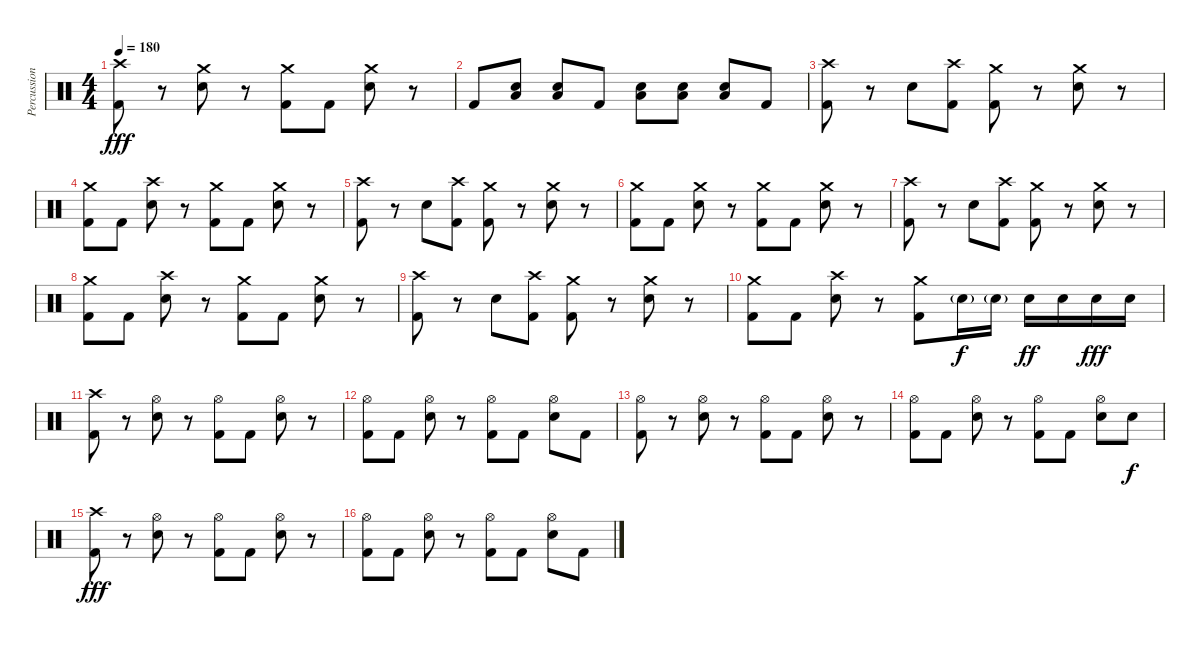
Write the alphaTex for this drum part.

\track ("Percussions" "Percussion") {mute instrument percussion}
\staff {score}
\articulation defaults
\ts (4 4)
\tempo 180
\clef neutral
\ks c
("Crash high (hit)" "Kick (hit) 2").8{dy fff} r.8 ("Crash medium (hit)" "Electric Snare (hit)").8 r.8 ("Crash medium (hit)" "Kick (hit) 2").8 "Kick (hit) 2".8 ("Crash medium (hit)" "Electric Snare (hit)").8 r.8 |
"Kick (hit) 2".8 ("Electric Snare (hit)" "Low Floor Tom (hit)").8 ("Electric Snare (hit)" "Low Floor Tom (hit)").8 "Kick (hit) 2".8 ("Electric Snare (hit)" "Low Floor Tom (hit)").8 ("Electric Snare (hit)" "Low Floor Tom (hit)").8 ("Electric Snare (hit)" "Low Floor Tom (hit)").8 "Kick (hit) 2".8 |
("Crash high (hit)" "Kick (hit) 2").8 r.8 "Electric Snare (hit)".8 ("Crash high (hit)" "Kick (hit) 2").8 ("Crash medium (hit)" "Kick (hit) 2").8 r.8 ("Crash medium (hit)" "Electric Snare (hit)").8 r.8 |
("Crash medium (hit)" "Kick (hit) 2").8 "Kick (hit) 2".8 ("Crash high (hit)" "Electric Snare (hit)").8 r.8 ("Crash medium (hit)" "Kick (hit) 2").8 "Kick (hit) 2".8 ("Crash medium (hit)" "Electric Snare (hit)").8 r.8 |
("Crash high (hit)" "Kick (hit) 2").8 r.8 "Electric Snare (hit)".8 ("Crash high (hit)" "Kick (hit) 2").8 ("Crash medium (hit)" "Kick (hit) 2").8 r.8 ("Crash medium (hit)" "Electric Snare (hit)").8 r.8 |
("Crash medium (hit)" "Kick (hit) 2").8 "Kick (hit) 2".8 ("Crash medium (hit)" "Electric Snare (hit)").8 r.8 ("Crash medium (hit)" "Kick (hit) 2").8 "Kick (hit) 2".8 ("Crash medium (hit)" "Electric Snare (hit)").8 r.8 |
("Crash high (hit)" "Kick (hit) 2").8 r.8 "Electric Snare (hit)".8 ("Crash high (hit)" "Kick (hit) 2").8 ("Crash medium (hit)" "Kick (hit) 2").8 r.8 ("Crash medium (hit)" "Electric Snare (hit)").8 r.8 |
("Crash medium (hit)" "Kick (hit) 2").8 "Kick (hit) 2".8 ("Crash high (hit)" "Electric Snare (hit)").8 r.8 ("Crash medium (hit)" "Kick (hit) 2").8 "Kick (hit) 2".8 ("Crash medium (hit)" "Electric Snare (hit)").8 r.8 |
("Crash high (hit)" "Kick (hit) 2").8 r.8 "Electric Snare (hit)".8 ("Crash high (hit)" "Kick (hit) 2").8 ("Crash medium (hit)" "Kick (hit) 2").8 r.8 ("Crash medium (hit)" "Electric Snare (hit)").8 r.8 |
("Crash medium (hit)" "Kick (hit) 2").8 "Kick (hit) 2".8 ("Crash high (hit)" "Electric Snare (hit)").8 r.8 ("Crash medium (hit)" "Kick (hit) 2").8 "Electric Snare (hit)"{g}.16{dy f} "Electric Snare (hit)"{g}.16 "Electric Snare (hit)".16{dy ff} "Electric Snare (hit)".16 "Electric Snare (hit)".16{dy fff} "Electric Snare (hit)".16 |
("Crash high (hit)" "Kick (hit) 2").8 r.8 ("Hi-Hat (open)" "Electric Snare (hit)").8 r.8 ("Hi-Hat (open)" "Kick (hit) 2").8 "Kick (hit) 2".8 ("Hi-Hat (open)" "Electric Snare (hit)").8 r.8 |
("Hi-Hat (open)" "Kick (hit) 2").8 "Kick (hit) 2".8 ("Hi-Hat (open)" "Electric Snare (hit)").8 r.8 ("Hi-Hat (open)" "Kick (hit) 2").8 "Kick (hit) 2".8 ("Hi-Hat (open)" "Electric Snare (hit)").8 "Kick (hit) 2".8 |
("Hi-Hat (open)" "Kick (hit) 2").8 r.8 ("Hi-Hat (open)" "Electric Snare (hit)").8 r.8 ("Hi-Hat (open)" "Kick (hit) 2").8 "Kick (hit) 2".8 ("Hi-Hat (open)" "Electric Snare (hit)").8 r.8 |
("Hi-Hat (open)" "Kick (hit) 2").8 "Kick (hit) 2".8 ("Hi-Hat (open)" "Electric Snare (hit)").8 r.8 ("Hi-Hat (open)" "Kick (hit) 2").8 "Kick (hit) 2".8 ("Hi-Hat (open)" "Electric Snare (hit)").8 "Electric Snare (hit)".8{dy f} |
("Crash high (hit)" "Kick (hit) 2").8{dy fff} r.8 ("Hi-Hat (open)" "Electric Snare (hit)").8 r.8 ("Hi-Hat (open)" "Kick (hit) 2").8 "Kick (hit) 2".8 ("Hi-Hat (open)" "Electric Snare (hit)").8 r.8 |
("Hi-Hat (open)" "Kick (hit) 2").8 "Kick (hit) 2".8 ("Hi-Hat (open)" "Electric Snare (hit)").8 r.8 ("Hi-Hat (open)" "Kick (hit) 2").8 "Kick (hit) 2".8 ("Hi-Hat (open)" "Electric Snare (hit)").8 "Kick (hit) 2".8
